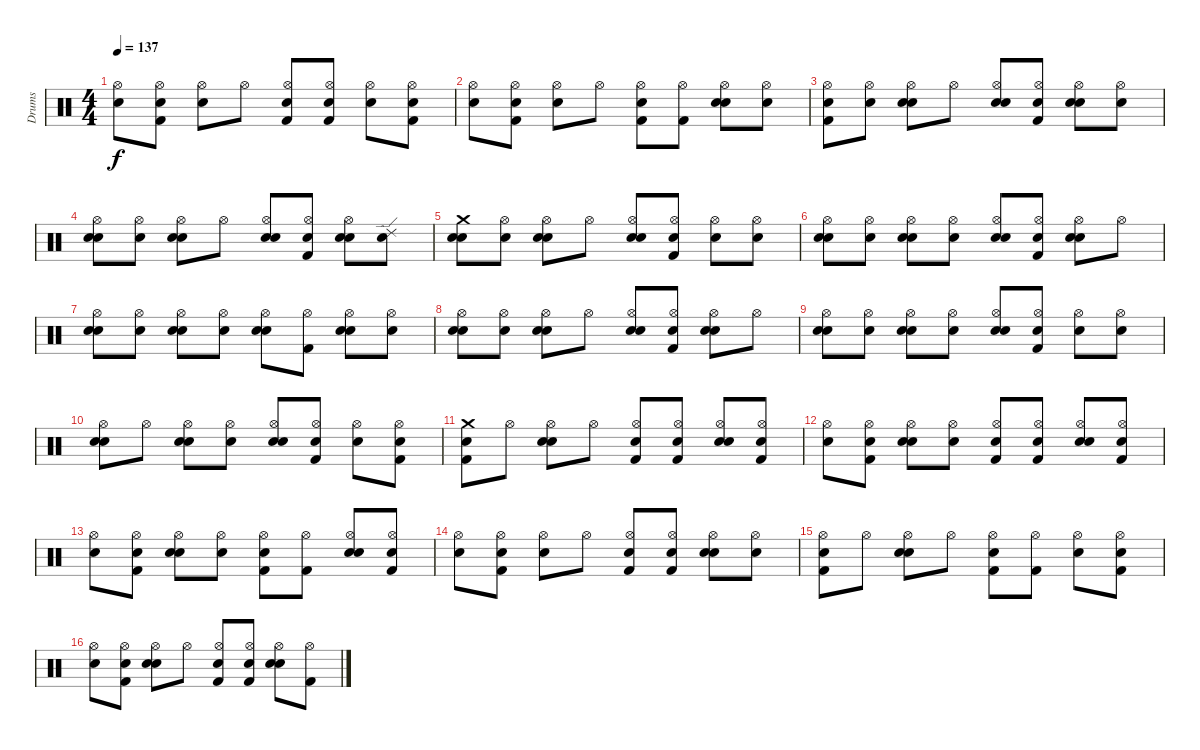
\track ("Drums" "Drums") {instrument percussion}
\staff {score}
\articulation defaults
\ts (4 4)
\tempo 137
\clef neutral
\ks c
("Snare (hit)" "Hi-Hat (open)").8{dy f} ("Snare (hit)" "Hi-Hat (open)" "Kick (hit) 2").8 ("Hi-Hat (open)" "Electric Snare (hit)").8 "Hi-Hat (open)".8 ("Snare (hit)" "Kick (hit) 2" "Hi-Hat (open)").8 ("Snare (hit)" "Hi-Hat (open)" "Kick (hit) 2").8 ("Electric Snare (hit)" "Hi-Hat (open)").8 ("Snare (hit)" "Hi-Hat (open)" "Kick (hit) 2").8 |
("Snare (hit)" "Hi-Hat (open)").8 ("Snare (hit)" "Hi-Hat (open)" "Kick (hit) 2").8 ("Hi-Hat (open)" "Electric Snare (hit)").8 "Hi-Hat (open)".8 ("Snare (hit)" "Hi-Hat (open)" "Kick (hit) 2").8 ("Hi-Hat (open)" "Kick (hit) 2").8 ("Snare (hit)" "Electric Snare (hit)" "Hi-Hat (open)").8 ("Snare (hit)" "Hi-Hat (open)").8 |
("Snare (hit)" "Kick (hit) 2" "Hi-Hat (open)").8 ("Snare (hit)" "Hi-Hat (open)").8 ("Snare (hit)" "Hi-Hat (open)" "Electric Snare (hit)").8 "Hi-Hat (open)".8 ("Snare (hit)" "Electric Snare (hit)" "Hi-Hat (open)").8 ("Snare (hit)" "Kick (hit) 2" "Hi-Hat (open)").8 ("Snare (hit)" "Electric Snare (hit)" "Hi-Hat (open)").8 ("Snare (hit)" "Hi-Hat (open)").8 |
("Snare (hit)" "Electric Snare (hit)" "Hi-Hat (open)").8 ("Snare (hit)" "Hi-Hat (open)").8 ("Snare (hit)" "Hi-Hat (open)" "Electric Snare (hit)").8 "Hi-Hat (open)".8 ("Snare (hit)" "Electric Snare (hit)" "Hi-Hat (open)").8 ("Snare (hit)" "Kick (hit) 2" "Hi-Hat (open)").8 ("Snare (hit)" "Electric Snare (hit)" "Hi-Hat (open)").8 ("Snare (hit)" "Ride (edge) 2").8 |
("Snare (hit)" "Electric Snare (hit)" "Crash medium (hit)").8 ("Snare (hit)" "Hi-Hat (open)").8 ("Snare (hit)" "Hi-Hat (open)" "Electric Snare (hit)").8 "Hi-Hat (open)".8 ("Snare (hit)" "Hi-Hat (open)" "Electric Snare (hit)").8 ("Snare (hit)" "Hi-Hat (open)" "Kick (hit) 2").8 ("Electric Snare (hit)" "Hi-Hat (open)").8 ("Snare (hit)" "Hi-Hat (open)").8 |
("Snare (hit)" "Electric Snare (hit)" "Hi-Hat (open)").8 ("Snare (hit)" "Hi-Hat (open)").8 ("Snare (hit)" "Electric Snare (hit)" "Hi-Hat (open)").8 ("Snare (hit)" "Hi-Hat (open)").8 ("Snare (hit)" "Electric Snare (hit)" "Hi-Hat (open)").8 ("Snare (hit)" "Kick (hit) 2" "Hi-Hat (open)").8 ("Snare (hit)" "Hi-Hat (open)" "Electric Snare (hit)").8 "Hi-Hat (open)".8 |
("Snare (hit)" "Electric Snare (hit)" "Hi-Hat (open)").8 ("Snare (hit)" "Hi-Hat (open)").8 ("Snare (hit)" "Electric Snare (hit)" "Hi-Hat (open)").8 ("Snare (hit)" "Hi-Hat (open)").8 ("Snare (hit)" "Hi-Hat (open)" "Electric Snare (hit)").8 ("Kick (hit) 2" "Hi-Hat (open)").8 ("Snare (hit)" "Electric Snare (hit)" "Hi-Hat (open)").8 ("Snare (hit)" "Hi-Hat (open)").8 |
("Snare (hit)" "Electric Snare (hit)" "Hi-Hat (open)").8 ("Snare (hit)" "Hi-Hat (open)").8 ("Snare (hit)" "Hi-Hat (open)" "Electric Snare (hit)").8 "Hi-Hat (open)".8 ("Snare (hit)" "Electric Snare (hit)" "Hi-Hat (open)").8 ("Snare (hit)" "Kick (hit) 2" "Hi-Hat (open)").8 ("Snare (hit)" "Hi-Hat (open)" "Electric Snare (hit)").8 "Hi-Hat (open)".8 |
("Snare (hit)" "Electric Snare (hit)" "Hi-Hat (open)").8 ("Snare (hit)" "Hi-Hat (open)").8 ("Snare (hit)" "Electric Snare (hit)" "Hi-Hat (open)").8 ("Snare (hit)" "Hi-Hat (open)").8 ("Snare (hit)" "Electric Snare (hit)" "Hi-Hat (open)").8 ("Snare (hit)" "Hi-Hat (open)" "Kick (hit) 2").8 ("Electric Snare (hit)" "Hi-Hat (open)").8 ("Snare (hit)" "Hi-Hat (open)").8 |
("Snare (hit)" "Hi-Hat (open)" "Electric Snare (hit)").8 "Hi-Hat (open)".8 ("Snare (hit)" "Electric Snare (hit)" "Hi-Hat (open)").8 ("Snare (hit)" "Hi-Hat (open)").8 ("Snare (hit)" "Electric Snare (hit)" "Hi-Hat (open)").8 ("Snare (hit)" "Hi-Hat (open)" "Kick (hit) 2").8 ("Hi-Hat (open)" "Electric Snare (hit)").8 ("Snare (hit)" "Kick (hit) 2" "Hi-Hat (open)").8 |
("Snare (hit)" "Crash medium (hit)" "Kick (hit) 2").8 "Hi-Hat (open)".8 ("Snare (hit)" "Hi-Hat (open)" "Electric Snare (hit)").8 "Hi-Hat (open)".8 ("Snare (hit)" "Kick (hit) 2" "Hi-Hat (open)").8 ("Snare (hit)" "Kick (hit) 2" "Hi-Hat (open)").8 ("Snare (hit)" "Electric Snare (hit)" "Hi-Hat (open)").8 ("Snare (hit)" "Kick (hit) 2" "Hi-Hat (open)").8 |
("Snare (hit)" "Hi-Hat (open)").8 ("Snare (hit)" "Kick (hit) 2" "Hi-Hat (open)").8 ("Snare (hit)" "Electric Snare (hit)" "Hi-Hat (open)").8 ("Snare (hit)" "Hi-Hat (open)").8 ("Snare (hit)" "Kick (hit) 2" "Hi-Hat (open)").8 ("Snare (hit)" "Kick (hit) 2" "Hi-Hat (open)").8 ("Snare (hit)" "Electric Snare (hit)" "Hi-Hat (open)").8 ("Snare (hit)" "Hi-Hat (open)" "Kick (hit) 2").8 |
("Snare (hit)" "Hi-Hat (open)").8 ("Snare (hit)" "Kick (hit) 2" "Hi-Hat (open)").8 ("Snare (hit)" "Electric Snare (hit)" "Hi-Hat (open)").8 ("Snare (hit)" "Hi-Hat (open)").8 ("Snare (hit)" "Hi-Hat (open)" "Kick (hit) 2").8 ("Kick (hit) 2" "Hi-Hat (open)").8 ("Snare (hit)" "Electric Snare (hit)" "Hi-Hat (open)").8 ("Snare (hit)" "Kick (hit) 2" "Hi-Hat (open)").8 |
("Snare (hit)" "Hi-Hat (open)").8 ("Snare (hit)" "Hi-Hat (open)" "Kick (hit) 2").8 ("Hi-Hat (open)" "Electric Snare (hit)").8 "Hi-Hat (open)".8 ("Snare (hit)" "Kick (hit) 2" "Hi-Hat (open)").8 ("Snare (hit)" "Kick (hit) 2" "Hi-Hat (open)").8 ("Snare (hit)" "Electric Snare (hit)" "Hi-Hat (open)").8 ("Snare (hit)" "Hi-Hat (open)").8 |
("Snare (hit)" "Hi-Hat (open)" "Kick (hit) 2").8 "Hi-Hat (open)".8 ("Snare (hit)" "Hi-Hat (open)" "Electric Snare (hit)").8 "Hi-Hat (open)".8 ("Snare (hit)" "Hi-Hat (open)" "Kick (hit) 2").8 ("Hi-Hat (open)" "Kick (hit) 2").8 ("Electric Snare (hit)" "Hi-Hat (open)").8 ("Snare (hit)" "Kick (hit) 2" "Hi-Hat (open)").8 |
("Snare (hit)" "Hi-Hat (open)").8 ("Snare (hit)" "Kick (hit) 2" "Hi-Hat (open)").8 ("Snare (hit)" "Hi-Hat (open)" "Electric Snare (hit)").8 "Hi-Hat (open)".8 ("Snare (hit)" "Kick (hit) 2" "Hi-Hat (open)").8 ("Snare (hit)" "Hi-Hat (open)" "Kick (hit) 2").8 ("Snare (hit)" "Hi-Hat (open)" "Electric Snare (hit)").8 ("Hi-Hat (open)" "Kick (hit) 2").8
